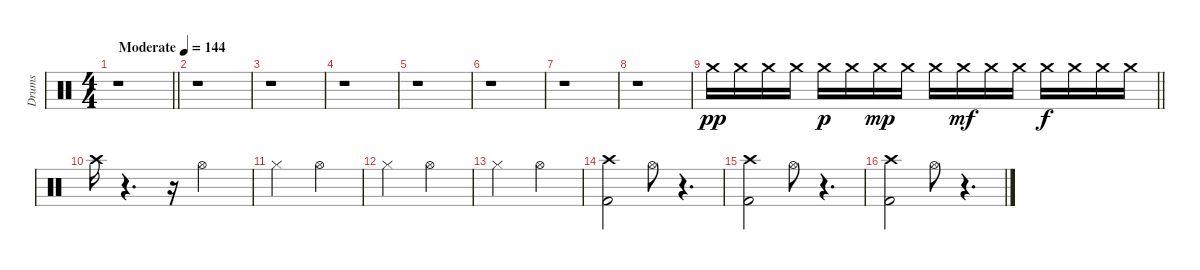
\track ("Drums" "Drums") {instrument percussion}
\staff {score}
\articulation defaults
\ts (4 4)
\tempo (144 "Moderate")
\clef neutral
\barLineRight lightlight
\ks c
r.1{dy pp} |
\section ("" "")
r.1 |
r.1 |
r.1 |
r.1 |
r.1 |
r.1 |
r.1 |
\barLineRight lightlight "Crash medium (hit)".16 "Crash medium (hit)".16 "Crash medium (hit)".16 "Crash medium (hit)".16 "Crash medium (hit)".16{dy p} "Crash medium (hit)".16 "Crash medium (hit)".16{dy mp} "Crash medium (hit)".16 "Crash medium (hit)".16 "Crash medium (hit)".16{dy mf} "Crash medium (hit)".16 "Crash medium (hit)".16 "Crash medium (hit)".16{dy f} "Crash medium (hit)".16 "Crash medium (hit)".16 "Crash medium (hit)".16
|
\section ("" " ")
"Crash high (hit)".16 r.4{d} r.16 "Hi-Hat (open)".2 |
"Hi-Hat (closed)".2 "Hi-Hat (open)".2 |
"Hi-Hat (closed)".2 "Hi-Hat (open)".2 |
"Hi-Hat (closed)".2 "Hi-Hat (open)".2 |
("Kick (hit) 2" "Crash high (hit)").2 "Hi-Hat (open)".8 r.4{d} |
("Kick (hit) 2" "Crash high (hit)").2 "Hi-Hat (open)".8 r.4{d} |
("Kick (hit) 2" "Crash high (hit)").2 "Hi-Hat (open)".8 r.4{d}
